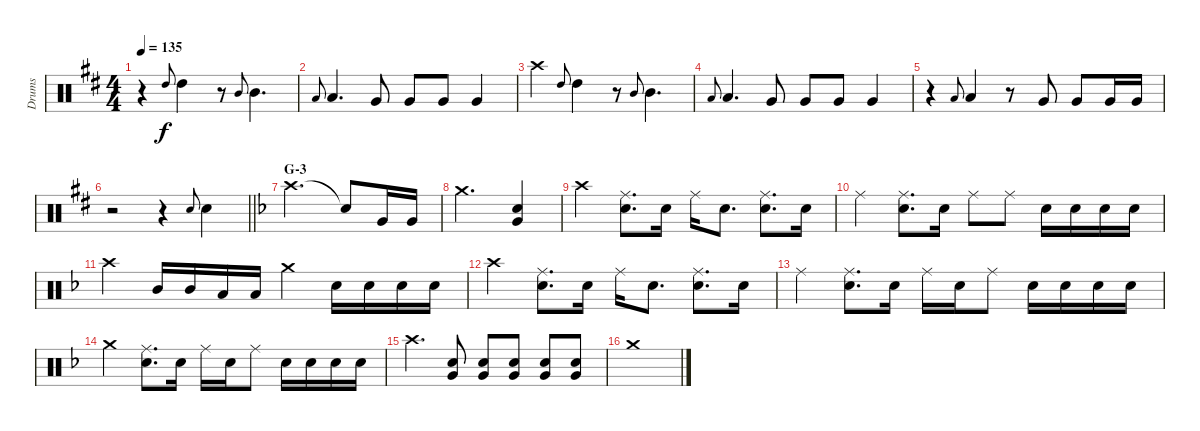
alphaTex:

\track ("Drums" "Drums") {instrument percussion}
\staff {score}
\articulation defaults
\ts (4 4)
\tempo 135
\clef neutral
\ks d
r.4{dy f} "High Tom (hit)".8{gr onbeat} "High Tom (hit)".4 r.8 "Mid Tom (hit)".8{gr onbeat} "Mid Tom (hit)".4{d} |
"Low Tom (hit)".8{gr onbeat} "Low Tom (hit)".4{d} "Very Low Tom (hit)".8 "Very Low Tom (hit)".8 "Very Low Tom (hit)".8 "Very Low Tom (hit)".4 |
"Crash high (hit)".4 "High Tom (hit)".8{gr onbeat} "High Tom (hit)".4 r.8 "Mid Tom (hit)".8{gr onbeat} "Mid Tom (hit)".4{d} |
"Low Tom (hit)".8{gr onbeat} "Low Tom (hit)".4{d} "Very Low Tom (hit)".8 "Very Low Tom (hit)".8 "Very Low Tom (hit)".8 "Very Low Tom (hit)".4 |
r.4 "Low Tom (hit)".8{gr onbeat} "Low Tom (hit)".4 r.8 "Very Low Tom (hit)".8 "Very Low Tom (hit)".8 "Very Low Tom (hit)".16 "Very Low Tom (hit)".16 |
\barLineRight lightlight
r.2 r.4 "Snare (hit) 2".8{gr onbeat} "Snare (hit) 2".4 |
\section ("" "G-3")
\ks f "Crash high (hit)".2{d} "Snare (hit)"{t}.8 "Very Low Tom (hit)".16 "Very Low Tom (hit)".16
|
"Crash medium (hit)".2{d} ("Snare (hit) 2" "Very Low Tom (hit)").4 |
"Crash high (hit)".4 ("Ride (middle)" "Snare (hit) 2").8{d} "Snare (hit) 2".16 "Ride (middle)".16 "Snare (hit) 2".8{d} ("Ride (middle)" "Snare (hit) 2").8{d} "Snare (hit) 2".16 |
"Ride (middle)".4 ("Ride (middle)" "Snare (hit) 2").8{d} "Snare (hit) 2".16 "Ride (middle)".8 "Ride (middle)".8 "Snare (hit) 2".16 "Snare (hit) 2".16 "Snare (hit) 2".16 "Snare (hit) 2".16 |
"Crash high (hit)".4 "Mid Tom (hit)".16 "Mid Tom (hit)".16 "Low Tom (hit)".16 "Low Tom (hit)".16 "Crash medium (hit)".4 "Snare (hit) 2".16 "Snare (hit) 2".16 "Snare (hit) 2".16 "Snare (hit) 2".16 |
"Crash high (hit)".4 ("Ride (middle)" "Snare (hit) 2").8{d} "Snare (hit) 2".16 "Ride (middle)".16 "Snare (hit) 2".8{d} ("Ride (middle)" "Snare (hit) 2").8{d} "Snare (hit) 2".16 |
"Ride (middle)".4 ("Ride (middle)" "Snare (hit) 2").8{d} "Snare (hit) 2".16 "Ride (middle)".16 "Snare (hit) 2".16 "Ride (middle)".8 "Snare (hit) 2".16 "Snare (hit) 2".16 "Snare (hit) 2".16 "Snare (hit) 2".16 |
"Crash medium (hit)".4 ("Ride (middle)" "Snare (hit) 2").8{d} "Snare (hit) 2".16 "Ride (middle)".16 "Snare (hit) 2".16 "Ride (middle)".8 "Snare (hit) 2".16 "Snare (hit) 2".16 "Snare (hit) 2".16 "Snare (hit) 2".16 |
"Crash high (hit)".4{d} ("Snare (hit) 2" "Very Low Tom (hit)").8 ("Snare (hit) 2" "Very Low Tom (hit)").8 ("Snare (hit) 2" "Very Low Tom (hit)").8 ("Snare (hit) 2" "Very Low Tom (hit)").8 ("Snare (hit) 2" "Very Low Tom (hit)").8 |
"Crash medium (hit)".1
